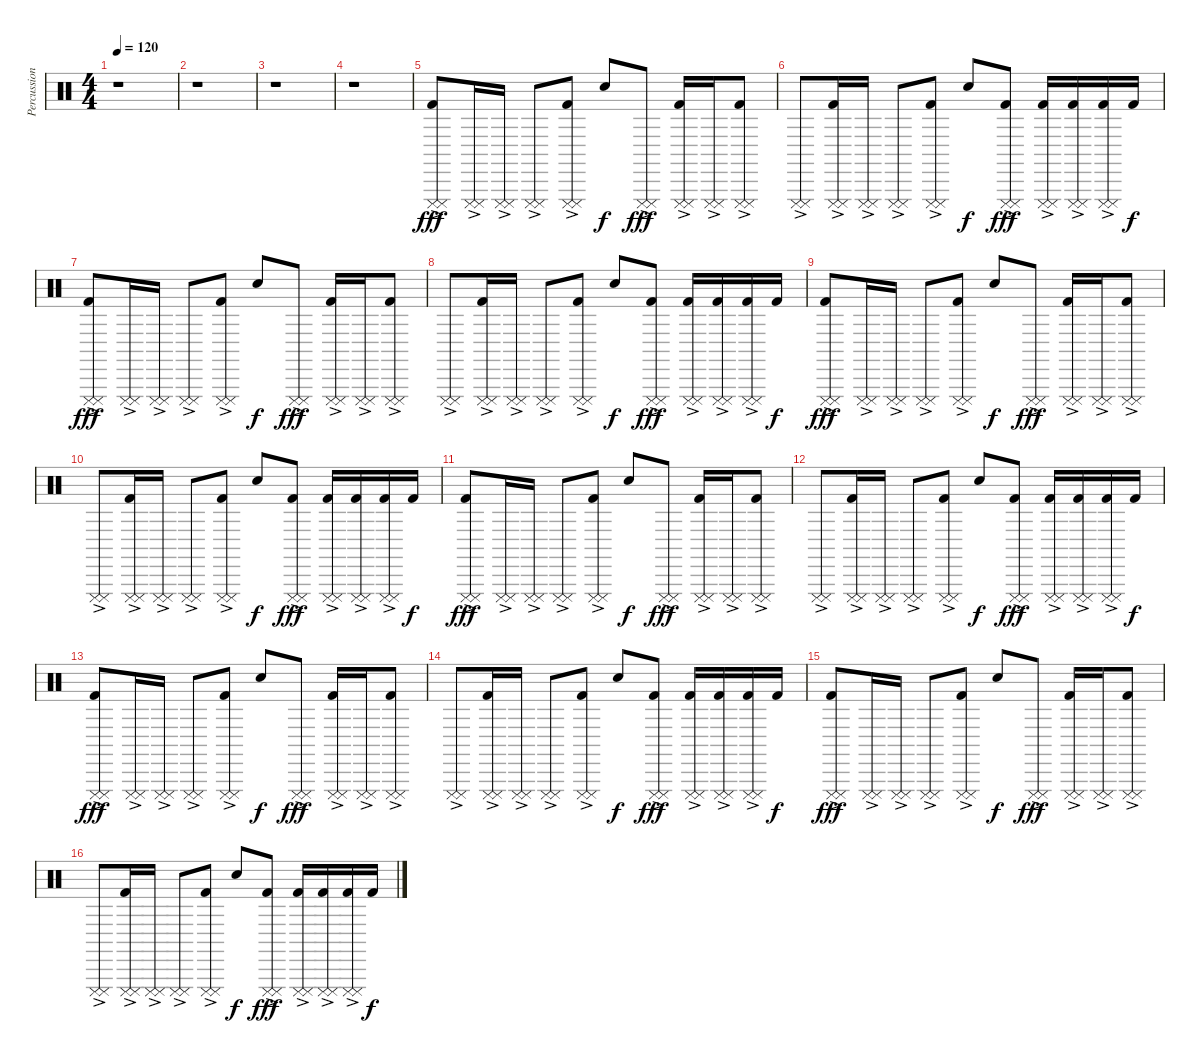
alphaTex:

\track ("Percussion" "Percussion") {instrument percussion}
\staff {score}
\articulation defaults
\ts (4 4)
\tempo 120
\clef neutral
\ks c
r.1{dy fff} |
r.1 |
r.1 |
r.1 |
("Cuica (mute)"{ac} "Cuica (mute)"{ac} "Kick (hit) 2").8 ("Cuica (mute)"{ac} "Cuica (mute)"{ac}).16 ("Cuica (mute)"{ac} "Cuica (mute)"{ac}).16 ("Cuica (mute)"{ac} "Cuica (mute)"{ac}).8 ("Cuica (mute)"{ac} "Cuica (mute)"{ac} "Kick (hit) 2").8 "Electric Snare (hit)".8{dy f} ("Cuica (mute)"{ac} "Cuica (mute)"{ac}).8{dy fff} ("Cuica (mute)"{ac} "Cuica (mute)"{ac} "Kick (hit) 2").16 ("Cuica (mute)"{ac} "Cuica (mute)"{ac}).16 ("Cuica (mute)"{ac} "Cuica (mute)"{ac} "Kick (hit) 2").8 |
("Cuica (mute)"{ac} "Cuica (mute)"{ac}).8 ("Cuica (mute)"{ac} "Cuica (mute)"{ac} "Kick (hit) 2").16 ("Cuica (mute)"{ac} "Cuica (mute)"{ac}).16 ("Cuica (mute)"{ac} "Cuica (mute)"{ac}).8 ("Cuica (mute)"{ac} "Cuica (mute)"{ac} "Kick (hit) 2").8 "Electric Snare (hit)".8{dy f} ("Cuica (mute)"{ac} "Cuica (mute)"{ac} "Kick (hit) 2").8{dy fff} ("Cuica (mute)"{ac} "Cuica (mute)"{ac} "Kick (hit) 2").16 ("Cuica (mute)"{ac} "Cuica (mute)"{ac} "Kick (hit) 2").16 ("Cuica (mute)"{ac} "Cuica (mute)"{ac} "Kick (hit) 2").16 "Kick (hit) 2".16{dy f} |
("Cuica (mute)"{ac} "Cuica (mute)"{ac} "Kick (hit) 2").8{dy fff} ("Cuica (mute)"{ac} "Cuica (mute)"{ac}).16 ("Cuica (mute)"{ac} "Cuica (mute)"{ac}).16 ("Cuica (mute)"{ac} "Cuica (mute)"{ac}).8 ("Cuica (mute)"{ac} "Cuica (mute)"{ac} "Kick (hit) 2").8 "Electric Snare (hit)".8{dy f} ("Cuica (mute)"{ac} "Cuica (mute)"{ac}).8{dy fff} ("Cuica (mute)"{ac} "Cuica (mute)"{ac} "Kick (hit) 2").16 ("Cuica (mute)"{ac} "Cuica (mute)"{ac}).16 ("Cuica (mute)"{ac} "Cuica (mute)"{ac} "Kick (hit) 2").8 |
("Cuica (mute)"{ac} "Cuica (mute)"{ac}).8 ("Cuica (mute)"{ac} "Cuica (mute)"{ac} "Kick (hit) 2").16 ("Cuica (mute)"{ac} "Cuica (mute)"{ac}).16 ("Cuica (mute)"{ac} "Cuica (mute)"{ac}).8 ("Cuica (mute)"{ac} "Cuica (mute)"{ac} "Kick (hit) 2").8 "Electric Snare (hit)".8{dy f} ("Cuica (mute)"{ac} "Cuica (mute)"{ac} "Kick (hit) 2").8{dy fff} ("Cuica (mute)"{ac} "Cuica (mute)"{ac} "Kick (hit) 2").16 ("Cuica (mute)"{ac} "Cuica (mute)"{ac} "Kick (hit) 2").16 ("Cuica (mute)"{ac} "Cuica (mute)"{ac} "Kick (hit) 2").16 "Kick (hit) 2".16{dy f} |
("Cuica (mute)"{ac} "Cuica (mute)"{ac} "Kick (hit) 2").8{dy fff} ("Cuica (mute)"{ac} "Cuica (mute)"{ac}).16 ("Cuica (mute)"{ac} "Cuica (mute)"{ac}).16 ("Cuica (mute)"{ac} "Cuica (mute)"{ac}).8 ("Cuica (mute)"{ac} "Cuica (mute)"{ac} "Kick (hit) 2").8 "Electric Snare (hit)".8{dy f} ("Cuica (mute)"{ac} "Cuica (mute)"{ac}).8{dy fff} ("Cuica (mute)"{ac} "Cuica (mute)"{ac} "Kick (hit) 2").16 ("Cuica (mute)"{ac} "Cuica (mute)"{ac}).16 ("Cuica (mute)"{ac} "Cuica (mute)"{ac} "Kick (hit) 2").8 |
("Cuica (mute)"{ac} "Cuica (mute)"{ac}).8 ("Cuica (mute)"{ac} "Cuica (mute)"{ac} "Kick (hit) 2").16 ("Cuica (mute)"{ac} "Cuica (mute)"{ac}).16 ("Cuica (mute)"{ac} "Cuica (mute)"{ac}).8 ("Cuica (mute)"{ac} "Cuica (mute)"{ac} "Kick (hit) 2").8 "Electric Snare (hit)".8{dy f} ("Cuica (mute)"{ac} "Cuica (mute)"{ac} "Kick (hit) 2").8{dy fff} ("Cuica (mute)"{ac} "Cuica (mute)"{ac} "Kick (hit) 2").16 ("Cuica (mute)"{ac} "Cuica (mute)"{ac} "Kick (hit) 2").16 ("Cuica (mute)"{ac} "Cuica (mute)"{ac} "Kick (hit) 2").16 "Kick (hit) 2".16{dy f} |
("Cuica (mute)"{ac} "Cuica (mute)"{ac} "Kick (hit) 2").8{dy fff} ("Cuica (mute)"{ac} "Cuica (mute)"{ac}).16 ("Cuica (mute)"{ac} "Cuica (mute)"{ac}).16 ("Cuica (mute)"{ac} "Cuica (mute)"{ac}).8 ("Cuica (mute)"{ac} "Cuica (mute)"{ac} "Kick (hit) 2").8 "Electric Snare (hit)".8{dy f} ("Cuica (mute)"{ac} "Cuica (mute)"{ac}).8{dy fff} ("Cuica (mute)"{ac} "Cuica (mute)"{ac} "Kick (hit) 2").16 ("Cuica (mute)"{ac} "Cuica (mute)"{ac}).16 ("Cuica (mute)"{ac} "Cuica (mute)"{ac} "Kick (hit) 2").8 |
("Cuica (mute)"{ac} "Cuica (mute)"{ac}).8 ("Cuica (mute)"{ac} "Cuica (mute)"{ac} "Kick (hit) 2").16 ("Cuica (mute)"{ac} "Cuica (mute)"{ac}).16 ("Cuica (mute)"{ac} "Cuica (mute)"{ac}).8 ("Cuica (mute)"{ac} "Cuica (mute)"{ac} "Kick (hit) 2").8 "Electric Snare (hit)".8{dy f} ("Cuica (mute)"{ac} "Cuica (mute)"{ac} "Kick (hit) 2").8{dy fff} ("Cuica (mute)"{ac} "Cuica (mute)"{ac} "Kick (hit) 2").16 ("Cuica (mute)"{ac} "Cuica (mute)"{ac} "Kick (hit) 2").16 ("Cuica (mute)"{ac} "Cuica (mute)"{ac} "Kick (hit) 2").16 "Kick (hit) 2".16{dy f} |
("Cuica (mute)"{ac} "Cuica (mute)"{ac} "Kick (hit) 2").8{dy fff} ("Cuica (mute)"{ac} "Cuica (mute)"{ac}).16 ("Cuica (mute)"{ac} "Cuica (mute)"{ac}).16 ("Cuica (mute)"{ac} "Cuica (mute)"{ac}).8 ("Cuica (mute)"{ac} "Cuica (mute)"{ac} "Kick (hit) 2").8 "Electric Snare (hit)".8{dy f} ("Cuica (mute)"{ac} "Cuica (mute)"{ac}).8{dy fff} ("Cuica (mute)"{ac} "Cuica (mute)"{ac} "Kick (hit) 2").16 ("Cuica (mute)"{ac} "Cuica (mute)"{ac}).16 ("Cuica (mute)"{ac} "Cuica (mute)"{ac} "Kick (hit) 2").8 |
("Cuica (mute)"{ac} "Cuica (mute)"{ac}).8 ("Cuica (mute)"{ac} "Cuica (mute)"{ac} "Kick (hit) 2").16 ("Cuica (mute)"{ac} "Cuica (mute)"{ac}).16 ("Cuica (mute)"{ac} "Cuica (mute)"{ac}).8 ("Cuica (mute)"{ac} "Cuica (mute)"{ac} "Kick (hit) 2").8 "Electric Snare (hit)".8{dy f} ("Cuica (mute)"{ac} "Cuica (mute)"{ac} "Kick (hit) 2").8{dy fff} ("Cuica (mute)"{ac} "Cuica (mute)"{ac} "Kick (hit) 2").16 ("Cuica (mute)"{ac} "Cuica (mute)"{ac} "Kick (hit) 2").16 ("Cuica (mute)"{ac} "Cuica (mute)"{ac} "Kick (hit) 2").16 "Kick (hit) 2".16{dy f} |
("Cuica (mute)"{ac} "Cuica (mute)"{ac} "Kick (hit) 2").8{dy fff} ("Cuica (mute)"{ac} "Cuica (mute)"{ac}).16 ("Cuica (mute)"{ac} "Cuica (mute)"{ac}).16 ("Cuica (mute)"{ac} "Cuica (mute)"{ac}).8 ("Cuica (mute)"{ac} "Cuica (mute)"{ac} "Kick (hit) 2").8 "Electric Snare (hit)".8{dy f} ("Cuica (mute)"{ac} "Cuica (mute)"{ac}).8{dy fff} ("Cuica (mute)"{ac} "Cuica (mute)"{ac} "Kick (hit) 2").16 ("Cuica (mute)"{ac} "Cuica (mute)"{ac}).16 ("Cuica (mute)"{ac} "Cuica (mute)"{ac} "Kick (hit) 2").8 |
("Cuica (mute)"{ac} "Cuica (mute)"{ac}).8 ("Cuica (mute)"{ac} "Cuica (mute)"{ac} "Kick (hit) 2").16 ("Cuica (mute)"{ac} "Cuica (mute)"{ac}).16 ("Cuica (mute)"{ac} "Cuica (mute)"{ac}).8 ("Cuica (mute)"{ac} "Cuica (mute)"{ac} "Kick (hit) 2").8 "Electric Snare (hit)".8{dy f} ("Cuica (mute)"{ac} "Cuica (mute)"{ac} "Kick (hit) 2").8{dy fff} ("Cuica (mute)"{ac} "Cuica (mute)"{ac} "Kick (hit) 2").16 ("Cuica (mute)"{ac} "Cuica (mute)"{ac} "Kick (hit) 2").16 ("Cuica (mute)"{ac} "Cuica (mute)"{ac} "Kick (hit) 2").16 "Kick (hit) 2".16{dy f}
